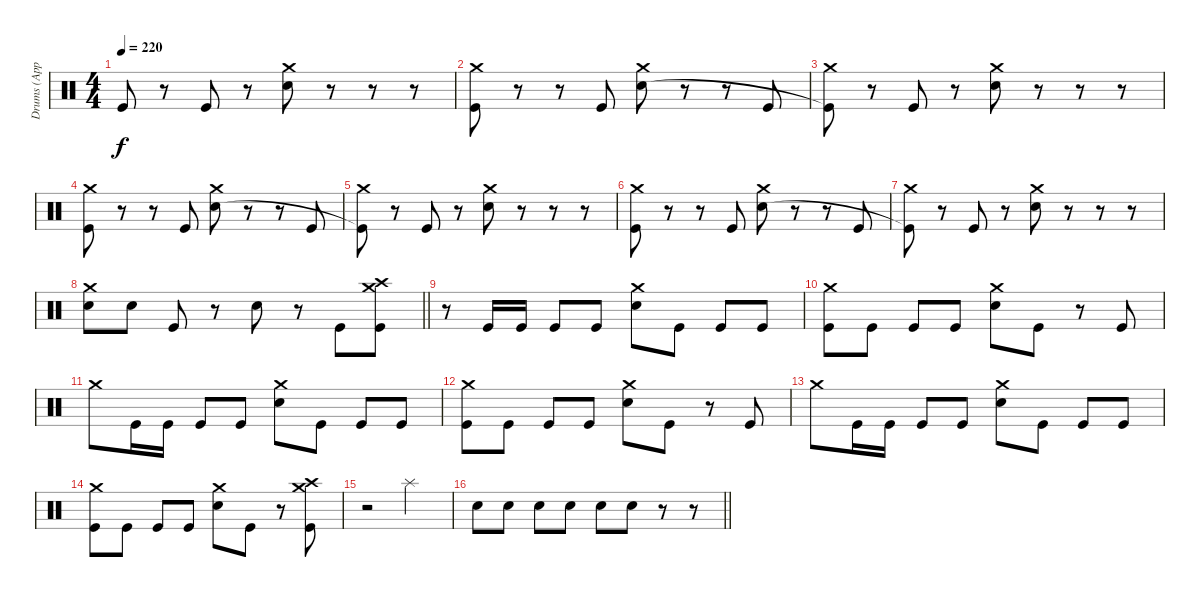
\track ("Drums (Approx.)" "Drums (App") {instrument percussion}
\staff {score}
\articulation defaults
\ts (4 4)
\section ("" "")
\tempo 220
\clef neutral
\ks c "Kick (hit)"{t}.8{dy f}
r.8 "Kick (hit)".8 r.8 ("Crash medium (hit)" "Electric Snare (hit)").8 r.8 r.8 r.8 |
("Crash medium (hit)" "Kick (hit)").8 r.8 r.8 "Kick (hit)".8 ("Crash medium (hit)" "Electric Snare (hit)").8 r.8 r.8 "Kick (hit)".8 |
("Crash medium (hit)" "Kick (hit)"{t}).8 r.8 "Kick (hit)".8 r.8 ("Crash medium (hit)" "Electric Snare (hit)").8 r.8 r.8 r.8 |
("Crash medium (hit)" "Kick (hit)").8 r.8 r.8 "Kick (hit)".8 ("Crash medium (hit)" "Electric Snare (hit)").8 r.8 r.8 "Kick (hit)".8 |
("Crash medium (hit)" "Kick (hit)"{t}).8 r.8 "Kick (hit)".8 r.8 ("Crash medium (hit)" "Electric Snare (hit)").8 r.8 r.8 r.8 |
("Crash medium (hit)" "Kick (hit)").8 r.8 r.8 "Kick (hit)".8 ("Crash medium (hit)" "Electric Snare (hit)").8 r.8 r.8 "Kick (hit)".8 |
("Crash medium (hit)" "Kick (hit)"{t}).8 r.8 "Kick (hit)".8 r.8 ("Crash medium (hit)" "Electric Snare (hit)").8 r.8 r.8 r.8 |
\barLineRight lightlight
("Crash medium (hit)" "Electric Snare (hit)").8 "Electric Snare (hit)".8 "Kick (hit)".8 r.8 "Electric Snare (hit)".8 r.8 "Kick (hit)".8 ("Crash medium (hit)" "Crash high (hit)" "Kick (hit)").8 |
r.8 "Kick (hit)".16 "Kick (hit)".16 "Kick (hit)".8 "Kick (hit)".8 ("Crash medium (hit)" "Electric Snare (hit)").8 "Kick (hit)".8 "Kick (hit)".8 "Kick (hit)".8 |
("Crash medium (hit)" "Kick (hit)").8 "Kick (hit)".8 "Kick (hit)".8 "Kick (hit)".8 ("Crash medium (hit)" "Electric Snare (hit)").8 "Kick (hit)".8 r.8 "Kick (hit)".8 |
"Crash medium (hit)".8 "Kick (hit)".16 "Kick (hit)".16 "Kick (hit)".8 "Kick (hit)".8 ("Crash medium (hit)" "Electric Snare (hit)").8 "Kick (hit)".8 "Kick (hit)".8 "Kick (hit)".8 |
("Crash medium (hit)" "Kick (hit)").8 "Kick (hit)".8 "Kick (hit)".8 "Kick (hit)".8 ("Crash medium (hit)" "Electric Snare (hit)").8 "Kick (hit)".8 r.8 "Kick (hit)".8 |
"Crash medium (hit)".8 "Kick (hit)".16 "Kick (hit)".16 "Kick (hit)".8 "Kick (hit)".8 ("Crash medium (hit)" "Electric Snare (hit)").8 "Kick (hit)".8 "Kick (hit)".8 "Kick (hit)".8 |
("Crash medium (hit)" "Kick (hit)").8 "Kick (hit)".8 "Kick (hit)".8 "Kick (hit)".8 ("Crash medium (hit)" "Electric Snare (hit)").8 "Kick (hit)".8 r.8 ("Crash medium (hit)" "Crash high (hit)" "Kick (hit)").8 |
r.2 "Splash (hit)".2 |
\barLineRight lightlight "Electric Snare (hit)".8 "Electric Snare (hit)".8 "Electric Snare (hit)".8 "Electric Snare (hit)".8 "Electric Snare (hit)".8 "Electric Snare (hit)".8
r.8 r.8
